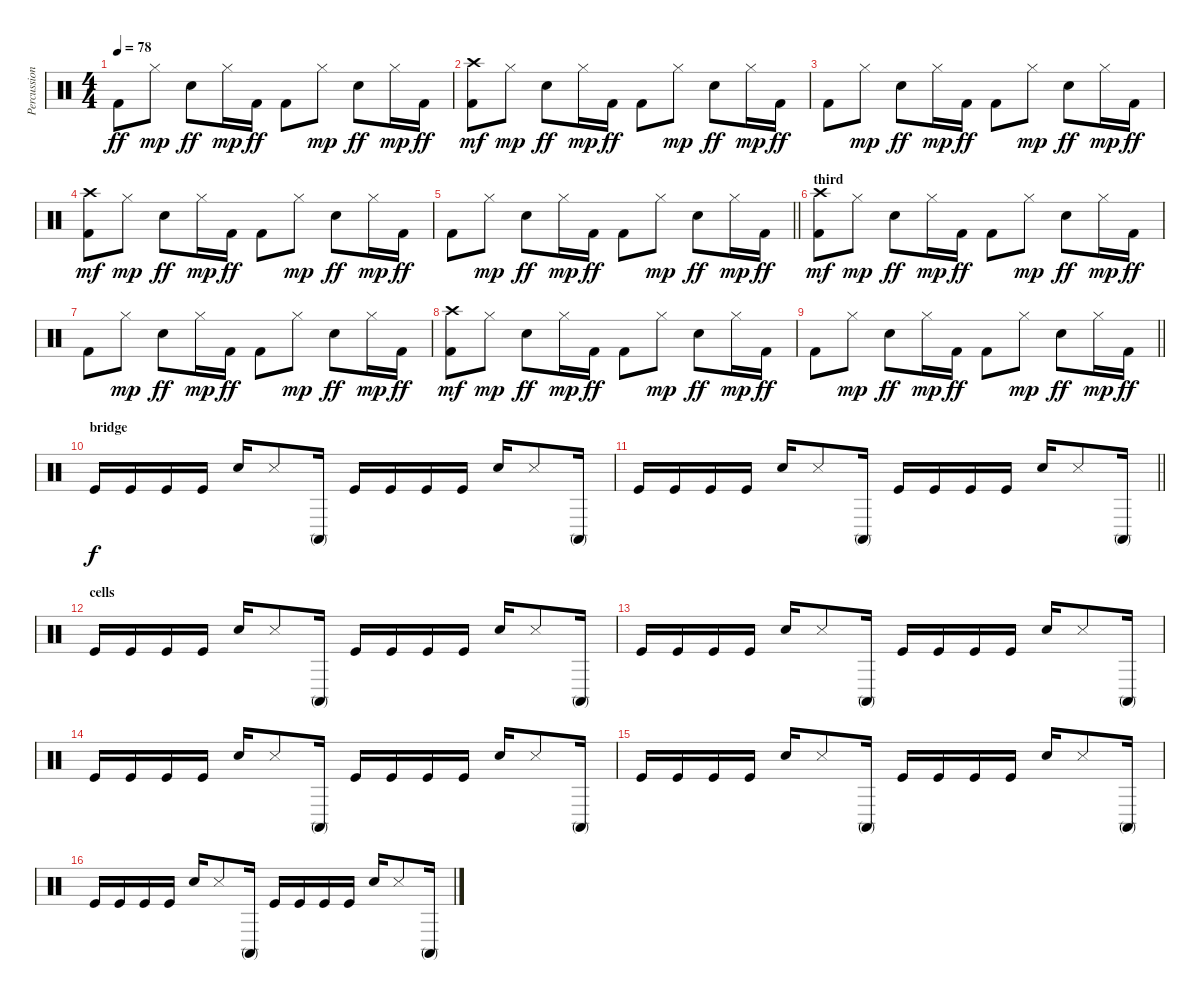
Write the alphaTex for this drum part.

\track ("Percussion" "Percussion") {instrument percussion}
\staff {score}
\articulation defaults
\ts (4 4)
\tempo 78
\clef neutral
\ks c "Kick (hit) 2".8{dy ff} "Hi-Hat (closed)".8{dy mp} "Snare (hit) 2".8{dy ff} "Hi-Hat (closed)".16{dy mp} "Kick (hit) 2".16{dy ff} "Kick (hit) 2".8 "Hi-Hat (closed)".8{dy mp} "Snare (hit) 2".8{dy ff} "Hi-Hat (closed)".16{dy mp} "Kick (hit) 2".16{dy ff}
|
("Kick (hit) 2" "Crash high (hit)").8{dy mf} "Hi-Hat (closed)".8{dy mp} "Snare (hit) 2".8{dy ff} "Hi-Hat (closed)".16{dy mp} "Kick (hit) 2".16{dy ff} "Kick (hit) 2".8 "Hi-Hat (closed)".8{dy mp} "Snare (hit) 2".8{dy ff} "Hi-Hat (closed)".16{dy mp} "Kick (hit) 2".16{dy ff} |
"Kick (hit) 2".8 "Hi-Hat (closed)".8{dy mp} "Snare (hit) 2".8{dy ff} "Hi-Hat (closed)".16{dy mp} "Kick (hit) 2".16{dy ff} "Kick (hit) 2".8 "Hi-Hat (closed)".8{dy mp} "Snare (hit) 2".8{dy ff} "Hi-Hat (closed)".16{dy mp} "Kick (hit) 2".16{dy ff} |
("Kick (hit) 2" "Crash high (hit)").8{dy mf} "Hi-Hat (closed)".8{dy mp} "Snare (hit) 2".8{dy ff} "Hi-Hat (closed)".16{dy mp} "Kick (hit) 2".16{dy ff} "Kick (hit) 2".8 "Hi-Hat (closed)".8{dy mp} "Snare (hit) 2".8{dy ff} "Hi-Hat (closed)".16{dy mp} "Kick (hit) 2".16{dy ff} |
\barLineRight lightlight "Kick (hit) 2".8 "Hi-Hat (closed)".8{dy mp} "Snare (hit) 2".8{dy ff} "Hi-Hat (closed)".16{dy mp} "Kick (hit) 2".16{dy ff} "Kick (hit) 2".8 "Hi-Hat (closed)".8{dy mp} "Snare (hit) 2".8{dy ff} "Hi-Hat (closed)".16{dy mp} "Kick (hit) 2".16{dy ff}
|
\section ("" "third")
("Kick (hit) 2" "Crash high (hit)").8{dy mf} "Hi-Hat (closed)".8{dy mp} "Snare (hit) 2".8{dy ff} "Hi-Hat (closed)".16{dy mp} "Kick (hit) 2".16{dy ff} "Kick (hit) 2".8 "Hi-Hat (closed)".8{dy mp} "Snare (hit) 2".8{dy ff} "Hi-Hat (closed)".16{dy mp} "Kick (hit) 2".16{dy ff} |
"Kick (hit) 2".8 "Hi-Hat (closed)".8{dy mp} "Snare (hit) 2".8{dy ff} "Hi-Hat (closed)".16{dy mp} "Kick (hit) 2".16{dy ff} "Kick (hit) 2".8 "Hi-Hat (closed)".8{dy mp} "Snare (hit) 2".8{dy ff} "Hi-Hat (closed)".16{dy mp} "Kick (hit) 2".16{dy ff} |
("Kick (hit) 2" "Crash high (hit)").8{dy mf} "Hi-Hat (closed)".8{dy mp} "Snare (hit) 2".8{dy ff} "Hi-Hat (closed)".16{dy mp} "Kick (hit) 2".16{dy ff} "Kick (hit) 2".8 "Hi-Hat (closed)".8{dy mp} "Snare (hit) 2".8{dy ff} "Hi-Hat (closed)".16{dy mp} "Kick (hit) 2".16{dy ff} |
\barLineRight lightlight "Kick (hit) 2".8 "Hi-Hat (closed)".8{dy mp} "Snare (hit) 2".8{dy ff} "Hi-Hat (closed)".16{dy mp} "Kick (hit) 2".16{dy ff} "Kick (hit) 2".8 "Hi-Hat (closed)".8{dy mp} "Snare (hit) 2".8{dy ff} "Hi-Hat (closed)".16{dy mp} "Kick (hit) 2".16{dy ff}
|
\section ("" "bridge")
"Kick (hit)".16{dy f} "Kick (hit)".16 "Kick (hit)".16 "Kick (hit)".16 "Electric Snare (hit)".16 "Snare (side stick) 3".8 "Conga high (mute)".16 "Kick (hit)".16 "Kick (hit)".16 "Kick (hit)".16 "Kick (hit)".16 "Electric Snare (hit)".16 "Snare (side stick) 3".8 "Conga high (mute)".16 |
\barLineRight lightlight "Kick (hit)".16 "Kick (hit)".16 "Kick (hit)".16 "Kick (hit)".16 "Electric Snare (hit)".16 "Snare (side stick) 3".8 "Conga high (mute)".16 "Kick (hit)".16 "Kick (hit)".16 "Kick (hit)".16 "Kick (hit)".16 "Electric Snare (hit)".16 "Snare (side stick) 3".8 "Conga high (mute)".16
|
\section ("" "cells")
"Kick (hit)".16 "Kick (hit)".16 "Kick (hit)".16 "Kick (hit)".16 "Electric Snare (hit)".16 "Snare (side stick) 3".8 "Conga high (mute)".16 "Kick (hit)".16 "Kick (hit)".16 "Kick (hit)".16 "Kick (hit)".16 "Electric Snare (hit)".16 "Snare (side stick) 3".8 "Conga high (mute)".16 |
"Kick (hit)".16 "Kick (hit)".16 "Kick (hit)".16 "Kick (hit)".16 "Electric Snare (hit)".16 "Snare (side stick) 3".8 "Conga high (mute)".16 "Kick (hit)".16 "Kick (hit)".16 "Kick (hit)".16 "Kick (hit)".16 "Electric Snare (hit)".16 "Snare (side stick) 3".8 "Conga high (mute)".16 |
"Kick (hit)".16 "Kick (hit)".16 "Kick (hit)".16 "Kick (hit)".16 "Electric Snare (hit)".16 "Snare (side stick) 3".8 "Conga high (mute)".16 "Kick (hit)".16 "Kick (hit)".16 "Kick (hit)".16 "Kick (hit)".16 "Electric Snare (hit)".16 "Snare (side stick) 3".8 "Conga high (mute)".16 |
"Kick (hit)".16 "Kick (hit)".16 "Kick (hit)".16 "Kick (hit)".16 "Electric Snare (hit)".16 "Snare (side stick) 3".8 "Conga high (mute)".16 "Kick (hit)".16 "Kick (hit)".16 "Kick (hit)".16 "Kick (hit)".16 "Electric Snare (hit)".16 "Snare (side stick) 3".8 "Conga high (mute)".16 |
"Kick (hit)".16 "Kick (hit)".16 "Kick (hit)".16 "Kick (hit)".16 "Electric Snare (hit)".16 "Snare (side stick) 3".8 "Conga high (mute)".16 "Kick (hit)".16 "Kick (hit)".16 "Kick (hit)".16 "Kick (hit)".16 "Electric Snare (hit)".16 "Snare (side stick) 3".8 "Conga high (mute)".16
